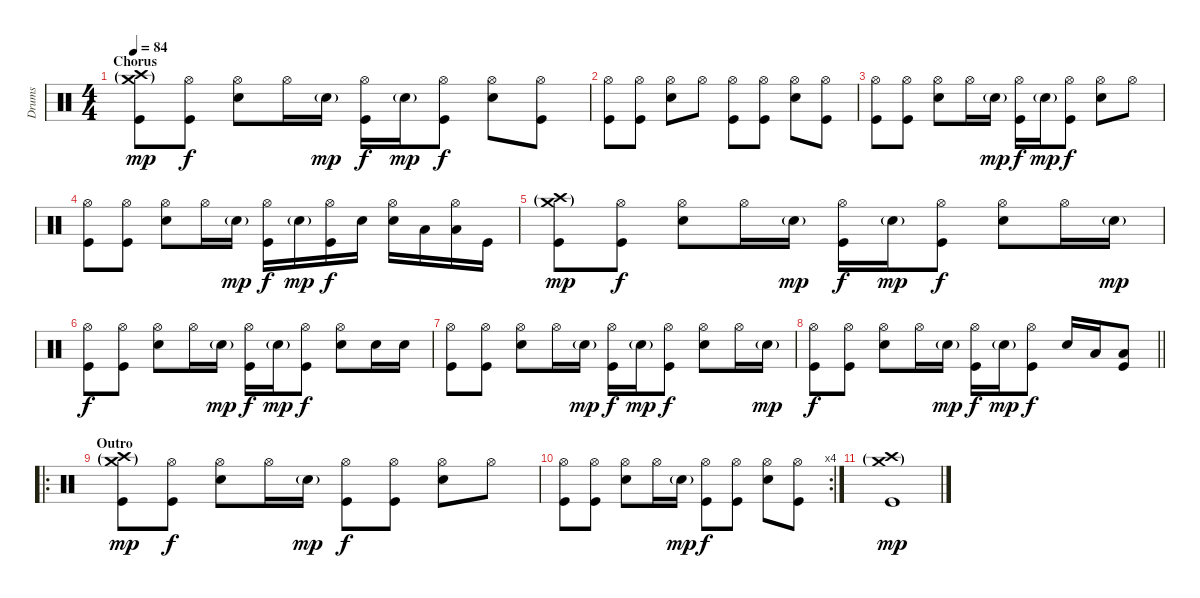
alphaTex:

\track ("Drums" "Drums") {instrument percussion}
\staff {score}
\articulation defaults
\ts (4 4)
\section ("" "Chorus")
\tempo 84
\clef neutral
\ks c
("Crash high (hit)"{g} "Crash medium (hit)"{g} "Kick (hit)").8{dy mp} ("Hi-Hat (open)" "Kick (hit)").8{dy f} ("Hi-Hat (open)" "Snare (hit) 2").8 "Hi-Hat (open)".16 "Snare (hit) 2"{g}.16{dy mp} ("Hi-Hat (open)" "Kick (hit)").16{dy f} "Snare (hit) 2"{g}.16{dy mp} ("Hi-Hat (open)" "Kick (hit)").8{dy f} ("Hi-Hat (open)" "Snare (hit) 2").8 ("Hi-Hat (open)" "Kick (hit)").8 |
("Hi-Hat (open)" "Kick (hit)").8 ("Hi-Hat (open)" "Kick (hit)").8 ("Hi-Hat (open)" "Snare (hit) 2").8 "Hi-Hat (open)".8 ("Hi-Hat (open)" "Kick (hit)").8 ("Hi-Hat (open)" "Kick (hit)").8 ("Hi-Hat (open)" "Snare (hit) 2").8 ("Hi-Hat (open)" "Kick (hit)").8 |
("Hi-Hat (open)" "Kick (hit)").8 ("Hi-Hat (open)" "Kick (hit)").8 ("Hi-Hat (open)" "Snare (hit) 2").8 "Hi-Hat (open)".16 "Snare (hit) 2"{g}.16{dy mp} ("Hi-Hat (open)" "Kick (hit)").16{dy f} "Snare (hit) 2"{g}.16{dy mp} ("Hi-Hat (open)" "Kick (hit)").8{dy f} ("Hi-Hat (open)" "Snare (hit) 2").8 "Hi-Hat (open)".8 |
("Hi-Hat (open)" "Kick (hit)").8 ("Hi-Hat (open)" "Kick (hit)").8 ("Hi-Hat (open)" "Snare (hit) 2").8 "Hi-Hat (open)".16 "Snare (hit) 2"{g}.16{dy mp} ("Hi-Hat (open)" "Kick (hit)").16{dy f} "Snare (hit) 2"{g}.16{dy mp} ("Hi-Hat (open)" "Kick (hit)").16{dy f} "Snare (hit) 2".16 ("Hi-Hat (open)" "Snare (hit) 2").16 "Low Floor Tom (hit)".16 ("Hi-Hat (open)" "Low Tom (hit)").16 "Kick (hit)".16 |
("Crash high (hit)"{g} "Crash medium (hit)"{g} "Kick (hit)").8{dy mp} ("Hi-Hat (open)" "Kick (hit)").8{dy f} ("Hi-Hat (open)" "Snare (hit) 2").8 "Hi-Hat (open)".16 "Snare (hit) 2"{g}.16{dy mp} ("Hi-Hat (open)" "Kick (hit)").16{dy f} "Snare (hit) 2"{g}.16{dy mp} ("Hi-Hat (open)" "Kick (hit)").8{dy f} ("Hi-Hat (open)" "Snare (hit) 2").8 "Hi-Hat (open)".16 "Snare (hit) 2"{g}.16{dy mp} |
("Hi-Hat (open)" "Kick (hit)").8{dy f} ("Hi-Hat (open)" "Kick (hit)").8 ("Hi-Hat (open)" "Snare (hit) 2").8 "Hi-Hat (open)".16 "Snare (hit) 2"{g}.16{dy mp} ("Hi-Hat (open)" "Kick (hit)").16{dy f} "Snare (hit) 2"{g}.16{dy mp} ("Hi-Hat (open)" "Kick (hit)").8{dy f} ("Hi-Hat (open)" "Snare (hit) 2").8 "Snare (hit) 2".16 "Snare (hit) 2".16 |
("Hi-Hat (open)" "Kick (hit)").8 ("Hi-Hat (open)" "Kick (hit)").8 ("Hi-Hat (open)" "Snare (hit) 2").8 "Hi-Hat (open)".16 "Snare (hit) 2"{g}.16{dy mp} ("Hi-Hat (open)" "Kick (hit)").16{dy f} "Snare (hit) 2"{g}.16{dy mp} ("Hi-Hat (open)" "Kick (hit)").8{dy f} ("Hi-Hat (open)" "Snare (hit) 2").8 "Hi-Hat (open)".16 "Snare (hit) 2"{g}.16{dy mp} |
\barLineRight lightlight
("Hi-Hat (open)" "Kick (hit)").8{dy f} ("Hi-Hat (open)" "Kick (hit)").8 ("Hi-Hat (open)" "Snare (hit) 2").8 "Hi-Hat (open)".16 "Snare (hit) 2"{g}.16{dy mp} ("Hi-Hat (open)" "Kick (hit)").16{dy f} "Snare (hit) 2"{g}.16{dy mp} ("Hi-Hat (open)" "Kick (hit)").8{dy f} "Snare (hit) 2".16 "Low Tom (hit)".16 ("Low Floor Tom (hit)" "Kick (hit)").8 |
\ro
\section ("" "Outro")
("Crash medium (hit)"{g} "Crash high (hit)"{g} "Kick (hit)").8{dy mp} ("Hi-Hat (open)" "Kick (hit)").8{dy f} ("Hi-Hat (open)" "Snare (hit) 2").8 "Hi-Hat (open)".16 "Snare (hit) 2"{g}.16{dy mp} ("Hi-Hat (open)" "Kick (hit)").8{dy f} ("Hi-Hat (open)" "Kick (hit)").8 ("Hi-Hat (open)" "Snare (hit) 2").8 "Hi-Hat (open)".8 |
\rc 4
("Hi-Hat (open)" "Kick (hit)").8 ("Hi-Hat (open)" "Kick (hit)").8 ("Hi-Hat (open)" "Snare (hit) 2").8 "Hi-Hat (open)".16 "Snare (hit) 2"{g}.16{dy mp} ("Hi-Hat (open)" "Kick (hit)").8{dy f} ("Hi-Hat (open)" "Kick (hit)").8 ("Hi-Hat (open)" "Snare (hit) 2").8 ("Hi-Hat (open)" "Kick (hit)").8 |
("Crash medium (hit)"{g} "Crash high (hit)"{g} "Kick (hit)").1{dy mp}
